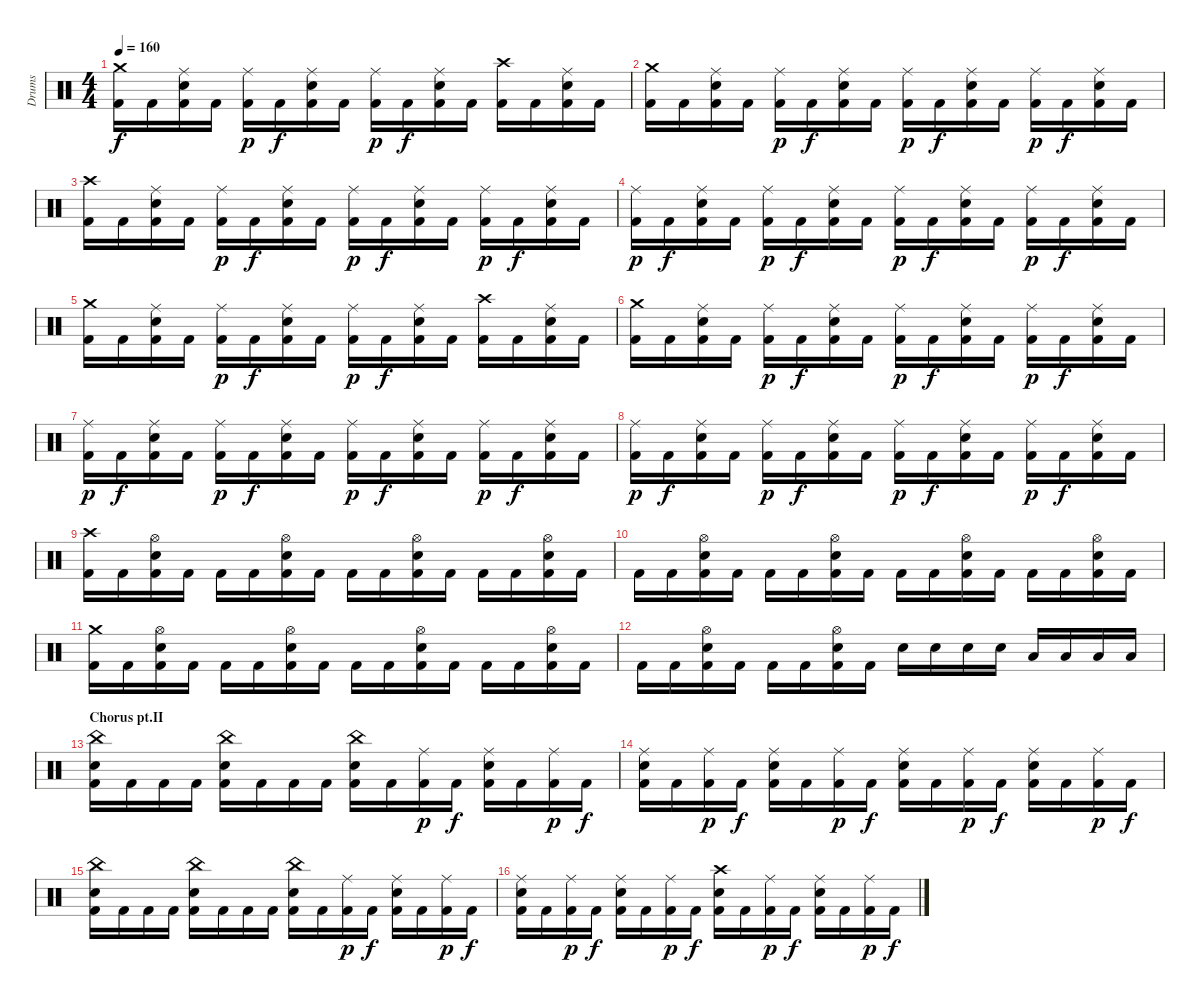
\track ("Drums" "Drums") {instrument percussion}
\staff {score}
\articulation defaults
\ts (4 4)
\tempo 160
\clef neutral
\ks c
("Crash medium (hit)" "Kick (hit) 2").16{dy f} "Kick (hit) 2".16 ("Ride (middle)" "Snare (hit) 2" "Kick (hit) 2").16 "Kick (hit) 2".16 ("Ride (middle)" "Kick (hit) 2").16{dy p} "Kick (hit) 2".16{dy f} ("Ride (middle)" "Snare (hit) 2" "Kick (hit) 2").16 "Kick (hit) 2".16 ("Ride (middle)" "Kick (hit) 2").16{dy p} "Kick (hit) 2".16{dy f} ("Ride (middle)" "Snare (hit) 2" "Kick (hit) 2").16 "Kick (hit) 2".16 ("Crash high (hit)" "Kick (hit) 2").16 "Kick (hit) 2".16 ("Ride (middle)" "Snare (hit) 2" "Kick (hit) 2").16 "Kick (hit) 2".16 |
("Crash medium (hit)" "Kick (hit) 2").16 "Kick (hit) 2".16 ("Ride (middle)" "Snare (hit) 2" "Kick (hit) 2").16 "Kick (hit) 2".16 ("Ride (middle)" "Kick (hit) 2").16{dy p} "Kick (hit) 2".16{dy f} ("Ride (middle)" "Snare (hit) 2" "Kick (hit) 2").16 "Kick (hit) 2".16 ("Ride (middle)" "Kick (hit) 2").16{dy p} "Kick (hit) 2".16{dy f} ("Ride (middle)" "Snare (hit) 2" "Kick (hit) 2").16 "Kick (hit) 2".16 ("Ride (middle)" "Kick (hit) 2").16{dy p} "Kick (hit) 2".16{dy f} ("Ride (middle)" "Snare (hit) 2" "Kick (hit) 2").16 "Kick (hit) 2".16 |
("Crash high (hit)" "Kick (hit) 2").16 "Kick (hit) 2".16 ("Ride (middle)" "Snare (hit) 2" "Kick (hit) 2").16 "Kick (hit) 2".16 ("Ride (middle)" "Kick (hit) 2").16{dy p} "Kick (hit) 2".16{dy f} ("Ride (middle)" "Snare (hit) 2" "Kick (hit) 2").16 "Kick (hit) 2".16 ("Ride (middle)" "Kick (hit) 2").16{dy p} "Kick (hit) 2".16{dy f} ("Ride (middle)" "Snare (hit) 2" "Kick (hit) 2").16 "Kick (hit) 2".16 ("Ride (middle)" "Kick (hit) 2").16{dy p} "Kick (hit) 2".16{dy f} ("Ride (middle)" "Snare (hit) 2" "Kick (hit) 2").16 "Kick (hit) 2".16 |
("Ride (middle)" "Kick (hit) 2").16{dy p} "Kick (hit) 2".16{dy f} ("Ride (middle)" "Snare (hit) 2" "Kick (hit) 2").16 "Kick (hit) 2".16 ("Ride (middle)" "Kick (hit) 2").16{dy p} "Kick (hit) 2".16{dy f} ("Ride (middle)" "Snare (hit) 2" "Kick (hit) 2").16 "Kick (hit) 2".16 ("Ride (middle)" "Kick (hit) 2").16{dy p} "Kick (hit) 2".16{dy f} ("Ride (middle)" "Snare (hit) 2" "Kick (hit) 2").16 "Kick (hit) 2".16 ("Ride (middle)" "Kick (hit) 2").16{dy p} "Kick (hit) 2".16{dy f} ("Ride (middle)" "Snare (hit) 2" "Kick (hit) 2").16 "Kick (hit) 2".16 |
("Crash medium (hit)" "Kick (hit) 2").16 "Kick (hit) 2".16 ("Ride (middle)" "Snare (hit) 2" "Kick (hit) 2").16 "Kick (hit) 2".16 ("Ride (middle)" "Kick (hit) 2").16{dy p} "Kick (hit) 2".16{dy f} ("Ride (middle)" "Snare (hit) 2" "Kick (hit) 2").16 "Kick (hit) 2".16 ("Ride (middle)" "Kick (hit) 2").16{dy p} "Kick (hit) 2".16{dy f} ("Ride (middle)" "Snare (hit) 2" "Kick (hit) 2").16 "Kick (hit) 2".16 ("Crash high (hit)" "Kick (hit) 2").16 "Kick (hit) 2".16 ("Ride (middle)" "Snare (hit) 2" "Kick (hit) 2").16 "Kick (hit) 2".16 |
("Crash medium (hit)" "Kick (hit) 2").16 "Kick (hit) 2".16 ("Ride (middle)" "Snare (hit) 2" "Kick (hit) 2").16 "Kick (hit) 2".16 ("Ride (middle)" "Kick (hit) 2").16{dy p} "Kick (hit) 2".16{dy f} ("Ride (middle)" "Snare (hit) 2" "Kick (hit) 2").16 "Kick (hit) 2".16 ("Ride (middle)" "Kick (hit) 2").16{dy p} "Kick (hit) 2".16{dy f} ("Ride (middle)" "Snare (hit) 2" "Kick (hit) 2").16 "Kick (hit) 2".16 ("Ride (middle)" "Kick (hit) 2").16{dy p} "Kick (hit) 2".16{dy f} ("Ride (middle)" "Snare (hit) 2" "Kick (hit) 2").16 "Kick (hit) 2".16 |
("Ride (middle)" "Kick (hit) 2").16{dy p} "Kick (hit) 2".16{dy f} ("Ride (middle)" "Snare (hit) 2" "Kick (hit) 2").16 "Kick (hit) 2".16 ("Ride (middle)" "Kick (hit) 2").16{dy p} "Kick (hit) 2".16{dy f} ("Ride (middle)" "Snare (hit) 2" "Kick (hit) 2").16 "Kick (hit) 2".16 ("Ride (middle)" "Kick (hit) 2").16{dy p} "Kick (hit) 2".16{dy f} ("Ride (middle)" "Snare (hit) 2" "Kick (hit) 2").16 "Kick (hit) 2".16 ("Ride (middle)" "Kick (hit) 2").16{dy p} "Kick (hit) 2".16{dy f} ("Ride (middle)" "Snare (hit) 2" "Kick (hit) 2").16 "Kick (hit) 2".16 |
("Ride (middle)" "Kick (hit) 2").16{dy p} "Kick (hit) 2".16{dy f} ("Ride (middle)" "Snare (hit) 2" "Kick (hit) 2").16 "Kick (hit) 2".16 ("Ride (middle)" "Kick (hit) 2").16{dy p} "Kick (hit) 2".16{dy f} ("Ride (middle)" "Snare (hit) 2" "Kick (hit) 2").16 "Kick (hit) 2".16 ("Ride (middle)" "Kick (hit) 2").16{dy p} "Kick (hit) 2".16{dy f} ("Ride (middle)" "Snare (hit) 2" "Kick (hit) 2").16 "Kick (hit) 2".16 ("Ride (middle)" "Kick (hit) 2").16{dy p} "Kick (hit) 2".16{dy f} ("Ride (middle)" "Snare (hit) 2" "Kick (hit) 2").16 "Kick (hit) 2".16 |
("Crash high (hit)" "Kick (hit) 2").16 "Kick (hit) 2".16 ("Hi-Hat (open)" "Snare (hit) 2" "Kick (hit) 2").16 "Kick (hit) 2".16 "Kick (hit) 2".16 "Kick (hit) 2".16 ("Hi-Hat (open)" "Snare (hit) 2" "Kick (hit) 2").16 "Kick (hit) 2".16 "Kick (hit) 2".16 "Kick (hit) 2".16 ("Hi-Hat (open)" "Snare (hit) 2" "Kick (hit) 2").16 "Kick (hit) 2".16 "Kick (hit) 2".16 "Kick (hit) 2".16 ("Hi-Hat (open)" "Snare (hit) 2" "Kick (hit) 2").16 "Kick (hit) 2".16 |
"Kick (hit) 2".16 "Kick (hit) 2".16 ("Hi-Hat (open)" "Snare (hit) 2" "Kick (hit) 2").16 "Kick (hit) 2".16 "Kick (hit) 2".16 "Kick (hit) 2".16 ("Hi-Hat (open)" "Snare (hit) 2" "Kick (hit) 2").16 "Kick (hit) 2".16 "Kick (hit) 2".16 "Kick (hit) 2".16 ("Hi-Hat (open)" "Snare (hit) 2" "Kick (hit) 2").16 "Kick (hit) 2".16 "Kick (hit) 2".16 "Kick (hit) 2".16 ("Hi-Hat (open)" "Snare (hit) 2" "Kick (hit) 2").16 "Kick (hit) 2".16 |
("Crash medium (hit)" "Kick (hit) 2").16 "Kick (hit) 2".16 ("Hi-Hat (open)" "Snare (hit) 2" "Kick (hit) 2").16 "Kick (hit) 2".16 "Kick (hit) 2".16 "Kick (hit) 2".16 ("Hi-Hat (open)" "Snare (hit) 2" "Kick (hit) 2").16 "Kick (hit) 2".16 "Kick (hit) 2".16 "Kick (hit) 2".16 ("Hi-Hat (open)" "Snare (hit) 2" "Kick (hit) 2").16 "Kick (hit) 2".16 "Kick (hit) 2".16 "Kick (hit) 2".16 ("Hi-Hat (open)" "Snare (hit) 2" "Kick (hit) 2").16 "Kick (hit) 2".16 |
"Kick (hit) 2".16 "Kick (hit) 2".16 ("Hi-Hat (open)" "Snare (hit) 2" "Kick (hit) 2").16 "Kick (hit) 2".16 "Kick (hit) 2".16 "Kick (hit) 2".16 ("Hi-Hat (open)" "Snare (hit) 2" "Kick (hit) 2").16 "Kick (hit) 2".16 "Snare (hit) 2".16 "Snare (hit) 2".16 "Snare (hit) 2".16 "Snare (hit) 2".16 "Low Tom (hit)".16 "Low Tom (hit)".16 "Low Tom (hit)".16 "Low Tom (hit)".16 |
\section ("" "Chorus pt.II")
("China (hit)" "Snare (hit) 2" "Kick (hit) 2").16 "Kick (hit) 2".16 "Kick (hit) 2".16 "Kick (hit) 2".16 ("China (hit)" "Snare (hit) 2" "Kick (hit) 2").16 "Kick (hit) 2".16 "Kick (hit) 2".16 "Kick (hit) 2".16 ("China (hit)" "Snare (hit) 2" "Kick (hit) 2").16 "Kick (hit) 2".16 ("Ride (middle)" "Kick (hit) 2").16{dy p} "Kick (hit) 2".16{dy f} ("Ride (middle)" "Snare (hit) 2" "Kick (hit) 2").16 "Kick (hit) 2".16 ("Ride (middle)" "Kick (hit) 2").16{dy p} "Kick (hit) 2".16{dy f} |
("Ride (middle)" "Snare (hit) 2" "Kick (hit) 2").16 "Kick (hit) 2".16 ("Ride (middle)" "Kick (hit) 2").16{dy p} "Kick (hit) 2".16{dy f} ("Ride (middle)" "Snare (hit) 2" "Kick (hit) 2").16 "Kick (hit) 2".16 ("Ride (middle)" "Kick (hit) 2").16{dy p} "Kick (hit) 2".16{dy f} ("Ride (middle)" "Snare (hit) 2" "Kick (hit) 2").16 "Kick (hit) 2".16 ("Ride (middle)" "Kick (hit) 2").16{dy p} "Kick (hit) 2".16{dy f} ("Ride (middle)" "Snare (hit) 2" "Kick (hit) 2").16 "Kick (hit) 2".16 ("Ride (middle)" "Kick (hit) 2").16{dy p} "Kick (hit) 2".16{dy f} |
("China (hit)" "Snare (hit) 2" "Kick (hit) 2").16 "Kick (hit) 2".16 "Kick (hit) 2".16 "Kick (hit) 2".16 ("China (hit)" "Snare (hit) 2" "Kick (hit) 2").16 "Kick (hit) 2".16 "Kick (hit) 2".16 "Kick (hit) 2".16 ("China (hit)" "Snare (hit) 2" "Kick (hit) 2").16 "Kick (hit) 2".16 ("Ride (middle)" "Kick (hit) 2").16{dy p} "Kick (hit) 2".16{dy f} ("Ride (middle)" "Snare (hit) 2" "Kick (hit) 2").16 "Kick (hit) 2".16 ("Ride (middle)" "Kick (hit) 2").16{dy p} "Kick (hit) 2".16{dy f} |
("Ride (middle)" "Snare (hit) 2" "Kick (hit) 2").16 "Kick (hit) 2".16 ("Ride (middle)" "Kick (hit) 2").16{dy p} "Kick (hit) 2".16{dy f} ("Ride (middle)" "Snare (hit) 2" "Kick (hit) 2").16 "Kick (hit) 2".16 ("Ride (middle)" "Kick (hit) 2").16{dy p} "Kick (hit) 2".16{dy f} ("Crash high (hit)" "Snare (hit) 2" "Kick (hit) 2").16 "Kick (hit) 2".16 ("Ride (middle)" "Kick (hit) 2").16{dy p} "Kick (hit) 2".16{dy f} ("Ride (middle)" "Snare (hit) 2" "Kick (hit) 2").16 "Kick (hit) 2".16 ("Ride (middle)" "Kick (hit) 2").16{dy p} "Kick (hit) 2".16{dy f}
